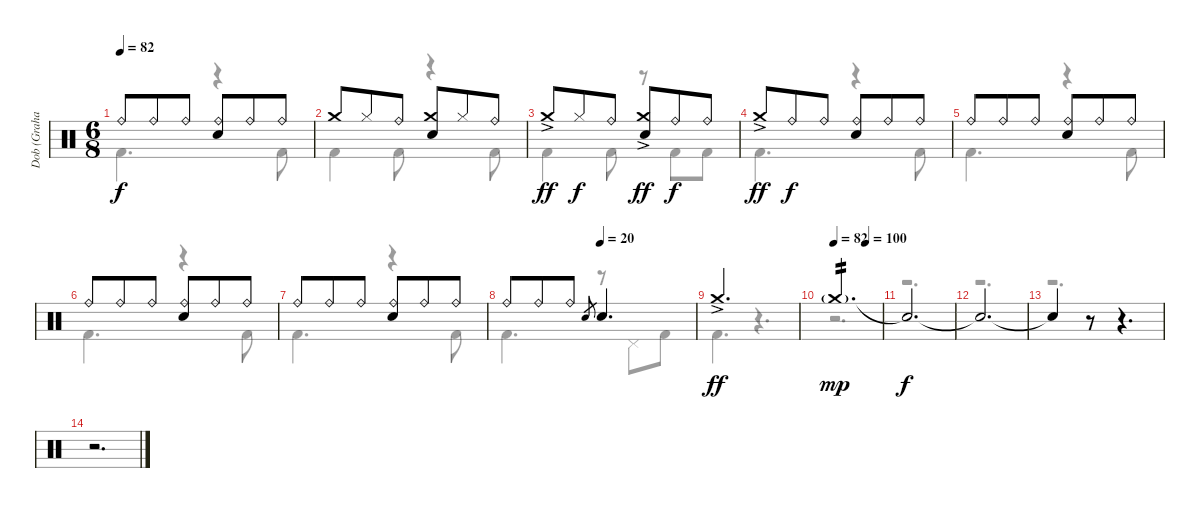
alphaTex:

\track ("Dob (Graham Walker)" "Dob (Graha") {instrument percussion}
\staff {score}
\articulation defaults
\voice
\ts (6 8)
\tempo 82
\clef neutral
\ks c "Ride (bell)".8{dy f} "Ride (bell)".8 "Ride (bell)".8
("Ride (bell)" "Electric Snare (hit)").8 "Ride (bell)".8 "Ride (bell)".8 |
"Crash medium (hit)".8 "Hi-Hat (closed)".8 "Ride (bell)".8 ("Crash medium (hit)" "Electric Snare (hit)").8 "Hi-Hat (closed)".8 "Ride (bell)".8 |
"Crash medium (hit)"{ac}.8{dy ff} "Hi-Hat (closed)".8{dy f} "Ride (bell)".8 ("Crash medium (hit)"{ac} "Electric Snare (hit)").8{dy ff} "Ride (bell)".8{dy f} "Ride (bell)".8 |
"Crash medium (hit)"{ac}.8{dy ff} "Ride (bell)".8{dy f} "Ride (bell)".8 ("Ride (bell)" "Electric Snare (hit)").8 "Ride (bell)".8 "Ride (bell)".8 |
"Ride (bell)".8 "Ride (bell)".8 "Ride (bell)".8 ("Ride (bell)" "Electric Snare (hit)").8 "Ride (bell)".8 "Ride (bell)".8 |
"Ride (bell)".8 "Ride (bell)".8 "Ride (bell)".8 ("Ride (bell)" "Electric Snare (hit)").8 "Ride (bell)".8 "Ride (bell)".8 |
"Ride (bell)".8 "Ride (bell)".8 "Ride (bell)".8 ("Ride (bell)" "Electric Snare (hit)").8 "Ride (bell)".8 "Ride (bell)".8 |
\tempo (20 0.5)
"Ride (bell)".8 "Ride (bell)".8 "Ride (bell)".8 "Electric Snare (hit)".8{gr} "Electric Snare (hit)".4{d} |
"Crash medium (hit)"{ac}.2{d dy ff} |
\tempo 82
\tempo (100 0.6666666666666666)
"Crash medium (hit)"{g}.2{d tp 2 dy mp} |
"Snare (hit)"{t}.2{d dy f} |
"Snare (hit)"{t}.2{d} |
"Snare (hit)"{t}.4 r.8 r.4{d} |
r.2{d} |
\voice
\clef neutral
\ottava regular
\simile none
\ks c "Kick (hit) 2".4{d dy f}
r.4 "Kick (hit) 2".8 |
"Kick (hit) 2".4 "Kick (hit) 2".8 r.4 "Kick (hit) 2".8 |
"Kick (hit) 2".4 "Kick (hit) 2".8 r.8 "Kick (hit) 2".8 "Kick (hit) 2".8 |
"Kick (hit) 2".4{d} r.4 "Kick (hit) 2".8 |
"Kick (hit) 2".4{d} r.4 "Kick (hit) 2".8 |
"Kick (hit) 2".4{d} r.4 "Kick (hit) 2".8 |
"Kick (hit) 2".4{d} r.4 "Kick (hit) 2".8 |
"Kick (hit) 2".4{d} r.8 "Pedal Hi-Hat (hit)".8 "Kick (hit) 2".8 |
"Kick (hit) 2".4{d} r.4{d} |
r.2{d} |
r.2{d} |
r.2{d} |
r.2{d} |
r.2{d} |
